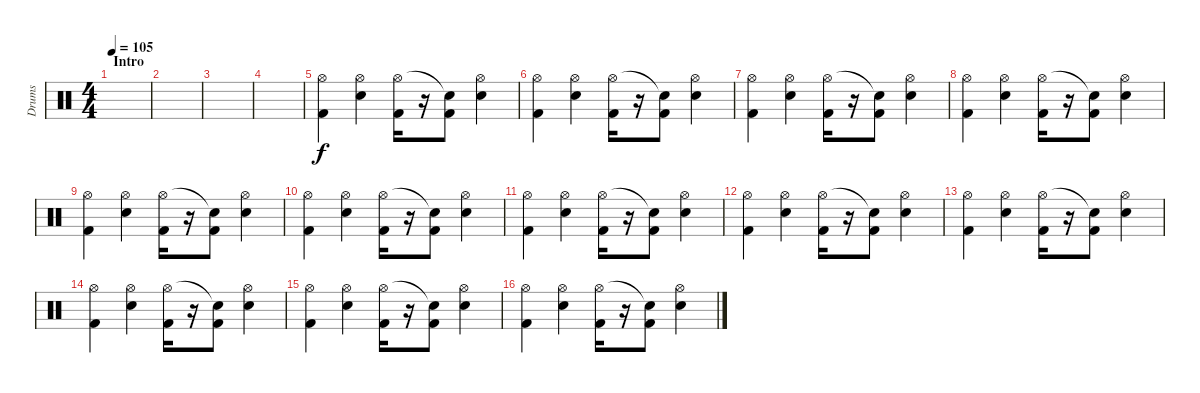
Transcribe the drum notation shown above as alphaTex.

\track ("Drums" "Drums") {instrument percussion}
\staff {score}
\articulation defaults
\ts (4 4)
\section ("" "Intro")
\tempo 105
\clef neutral
\ks c
|
|
|
|
("Hi-Hat (open)" "Kick (hit) 2").4 ("Hi-Hat (open)" "Electric Snare (hit)").4 ("Hi-Hat (open)" "Kick (hit) 2").16 r.16 ("Snare (hit)"{t} "Kick (hit) 2").8 ("Hi-Hat (open)" "Electric Snare (hit)").4 |
("Hi-Hat (open)" "Kick (hit) 2").4 ("Hi-Hat (open)" "Electric Snare (hit)").4 ("Hi-Hat (open)" "Kick (hit) 2").16 r.16 ("Snare (hit)"{t} "Kick (hit) 2").8 ("Hi-Hat (open)" "Electric Snare (hit)").4 |
("Hi-Hat (open)" "Kick (hit) 2").4 ("Hi-Hat (open)" "Electric Snare (hit)").4 ("Hi-Hat (open)" "Kick (hit) 2").16 r.16 ("Snare (hit)"{t} "Kick (hit) 2").8 ("Hi-Hat (open)" "Electric Snare (hit)").4 |
("Hi-Hat (open)" "Kick (hit) 2").4 ("Hi-Hat (open)" "Electric Snare (hit)").4 ("Hi-Hat (open)" "Kick (hit) 2").16 r.16 ("Snare (hit)"{t} "Kick (hit) 2").8 ("Hi-Hat (open)" "Electric Snare (hit)").4 |
("Hi-Hat (open)" "Kick (hit) 2").4 ("Hi-Hat (open)" "Electric Snare (hit)").4 ("Hi-Hat (open)" "Kick (hit) 2").16 r.16 ("Snare (hit)"{t} "Kick (hit) 2").8 ("Hi-Hat (open)" "Electric Snare (hit)").4 |
("Hi-Hat (open)" "Kick (hit) 2").4 ("Hi-Hat (open)" "Electric Snare (hit)").4 ("Hi-Hat (open)" "Kick (hit) 2").16 r.16 ("Snare (hit)"{t} "Kick (hit) 2").8 ("Hi-Hat (open)" "Electric Snare (hit)").4 |
("Hi-Hat (open)" "Kick (hit) 2").4 ("Hi-Hat (open)" "Electric Snare (hit)").4 ("Hi-Hat (open)" "Kick (hit) 2").16 r.16 ("Snare (hit)"{t} "Kick (hit) 2").8 ("Hi-Hat (open)" "Electric Snare (hit)").4 |
("Hi-Hat (open)" "Kick (hit) 2").4 ("Hi-Hat (open)" "Electric Snare (hit)").4 ("Hi-Hat (open)" "Kick (hit) 2").16 r.16 ("Snare (hit)"{t} "Kick (hit) 2").8 ("Hi-Hat (open)" "Electric Snare (hit)").4 |
("Hi-Hat (open)" "Kick (hit) 2").4 ("Hi-Hat (open)" "Electric Snare (hit)").4 ("Hi-Hat (open)" "Kick (hit) 2").16 r.16 ("Snare (hit)"{t} "Kick (hit) 2").8 ("Hi-Hat (open)" "Electric Snare (hit)").4 |
("Hi-Hat (open)" "Kick (hit) 2").4 ("Hi-Hat (open)" "Electric Snare (hit)").4 ("Hi-Hat (open)" "Kick (hit) 2").16 r.16 ("Snare (hit)"{t} "Kick (hit) 2").8 ("Hi-Hat (open)" "Electric Snare (hit)").4 |
("Hi-Hat (open)" "Kick (hit) 2").4 ("Hi-Hat (open)" "Electric Snare (hit)").4 ("Hi-Hat (open)" "Kick (hit) 2").16 r.16 ("Snare (hit)"{t} "Kick (hit) 2").8 ("Hi-Hat (open)" "Electric Snare (hit)").4 |
("Hi-Hat (open)" "Kick (hit) 2").4 ("Hi-Hat (open)" "Electric Snare (hit)").4 ("Hi-Hat (open)" "Kick (hit) 2").16 r.16 ("Snare (hit)"{t} "Kick (hit) 2").8 ("Hi-Hat (open)" "Electric Snare (hit)").4
